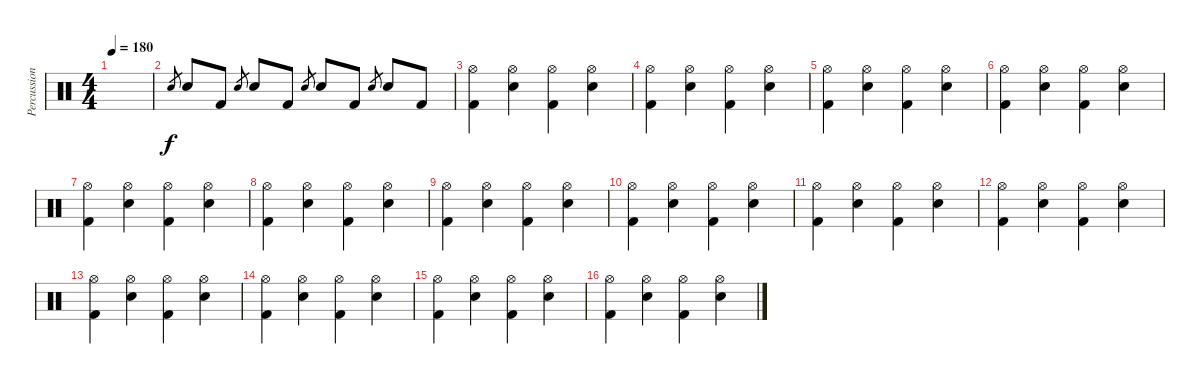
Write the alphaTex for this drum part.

\track ("Percussion" "Percussion") {instrument percussion}
\staff {score}
\articulation defaults
\ts (4 4)
\tempo 180
\clef neutral
\ks c
|
"Snare (hit) 2".8{gr} "Snare (hit) 2".8 "Kick (hit) 2".8 "Snare (hit) 2".8{gr} "Snare (hit) 2".8 "Kick (hit) 2".8 "Snare (hit) 2".8{gr} "Snare (hit) 2".8 "Kick (hit) 2".8 "Snare (hit) 2".8{gr} "Snare (hit) 2".8 "Kick (hit) 2".8 |
("Hi-Hat (open)" "Kick (hit) 2").4 ("Hi-Hat (open)" "Snare (hit) 2").4 ("Hi-Hat (open)" "Kick (hit) 2").4 ("Hi-Hat (open)" "Snare (hit) 2").4 |
("Hi-Hat (open)" "Kick (hit) 2").4 ("Hi-Hat (open)" "Snare (hit) 2").4 ("Hi-Hat (open)" "Kick (hit) 2").4 ("Hi-Hat (open)" "Snare (hit) 2").4 |
("Hi-Hat (open)" "Kick (hit) 2").4 ("Hi-Hat (open)" "Snare (hit) 2").4 ("Hi-Hat (open)" "Kick (hit) 2").4 ("Hi-Hat (open)" "Snare (hit) 2").4 |
("Hi-Hat (open)" "Kick (hit) 2").4 ("Hi-Hat (open)" "Snare (hit) 2").4 ("Hi-Hat (open)" "Kick (hit) 2").4 ("Hi-Hat (open)" "Snare (hit) 2").4 |
("Hi-Hat (open)" "Kick (hit) 2").4 ("Hi-Hat (open)" "Snare (hit) 2").4 ("Hi-Hat (open)" "Kick (hit) 2").4 ("Hi-Hat (open)" "Snare (hit) 2").4 |
("Hi-Hat (open)" "Kick (hit) 2").4 ("Hi-Hat (open)" "Snare (hit) 2").4 ("Hi-Hat (open)" "Kick (hit) 2").4 ("Hi-Hat (open)" "Snare (hit) 2").4 |
("Hi-Hat (open)" "Kick (hit) 2").4 ("Hi-Hat (open)" "Snare (hit) 2").4 ("Hi-Hat (open)" "Kick (hit) 2").4 ("Hi-Hat (open)" "Snare (hit) 2").4 |
("Hi-Hat (open)" "Kick (hit) 2").4 ("Hi-Hat (open)" "Snare (hit) 2").4 ("Hi-Hat (open)" "Kick (hit) 2").4 ("Hi-Hat (open)" "Snare (hit) 2").4 |
("Hi-Hat (open)" "Kick (hit) 2").4 ("Hi-Hat (open)" "Snare (hit) 2").4 ("Hi-Hat (open)" "Kick (hit) 2").4 ("Hi-Hat (open)" "Snare (hit) 2").4 |
("Hi-Hat (open)" "Kick (hit) 2").4 ("Hi-Hat (open)" "Snare (hit) 2").4 ("Hi-Hat (open)" "Kick (hit) 2").4 ("Hi-Hat (open)" "Snare (hit) 2").4 |
("Hi-Hat (open)" "Kick (hit) 2").4 ("Hi-Hat (open)" "Snare (hit) 2").4 ("Hi-Hat (open)" "Kick (hit) 2").4 ("Hi-Hat (open)" "Snare (hit) 2").4 |
("Hi-Hat (open)" "Kick (hit) 2").4 ("Hi-Hat (open)" "Snare (hit) 2").4 ("Hi-Hat (open)" "Kick (hit) 2").4 ("Hi-Hat (open)" "Snare (hit) 2").4 |
("Hi-Hat (open)" "Kick (hit) 2").4 ("Hi-Hat (open)" "Snare (hit) 2").4 ("Hi-Hat (open)" "Kick (hit) 2").4 ("Hi-Hat (open)" "Snare (hit) 2").4 |
("Hi-Hat (open)" "Kick (hit) 2").4 ("Hi-Hat (open)" "Snare (hit) 2").4 ("Hi-Hat (open)" "Kick (hit) 2").4 ("Hi-Hat (open)" "Snare (hit) 2").4
